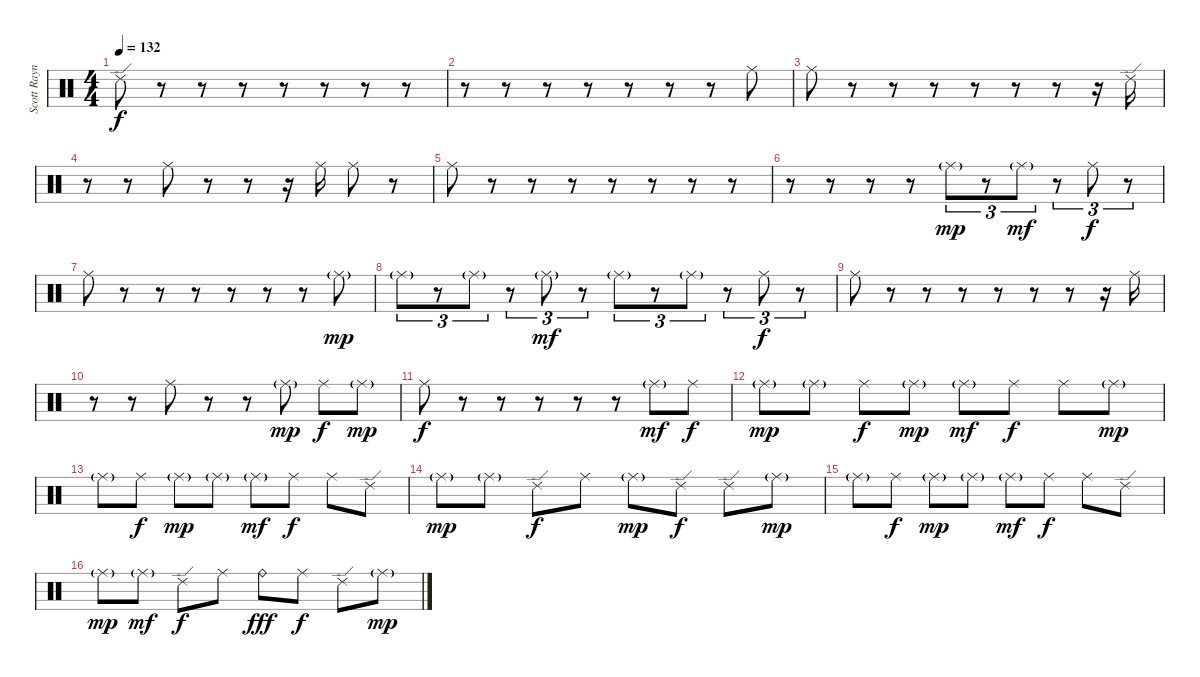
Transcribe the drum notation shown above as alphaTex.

\track ("Scott Raynor" "Scott Rayn") {instrument percussion}
\staff {score}
\articulation defaults
\ts (4 4)
\tempo 132
\clef neutral
\ks c "Ride (edge) 2".8{dy f volume 9}
r.8 r.8 r.8 r.8 r.8 r.8 r.8 |
r.8 r.8 r.8 r.8 r.8 r.8 r.8 "Ride (middle)".8 |
"Ride (middle)".8 r.8 r.8 r.8 r.8 r.8 r.8 r.16 "Ride (edge) 2".16 |
r.8 r.8 "Ride (middle)".8 r.8 r.8 r.16 "Ride (middle)".16 "Ride (middle)".8 r.8 |
"Ride (middle)".8 r.8 r.8 r.8 r.8 r.8 r.8 r.8 |
r.8 r.8 r.8 r.8 "Ride (middle)"{g}.8{tu (3 2) dy mp} r.8{tu (3 2)} "Ride (middle)"{g}.8{tu (3 2) dy mf} r.8{tu (3 2)} "Ride (middle)".8{tu (3 2) dy f} r.8{tu (3 2)} |
"Ride (middle)".8 r.8 r.8 r.8 r.8 r.8 r.8 "Ride (middle)"{g}.8{dy mp} |
"Ride (middle)"{g}.8{tu (3 2)} r.8{tu (3 2)} "Ride (middle)"{g}.8{tu (3 2)} r.8{tu (3 2)} "Ride (middle)"{g}.8{tu (3 2) dy mf} r.8{tu (3 2)} "Ride (middle)"{g}.8{tu (3 2)} r.8{tu (3 2)} "Ride (middle)"{g}.8{tu (3 2)} r.8{tu (3 2)} "Ride (middle)".8{tu (3 2) dy f} r.8{tu (3 2)} |
"Ride (middle)".8 r.8 r.8 r.8 r.8 r.8 r.8 r.16 "Ride (middle)".16 |
r.8 r.8 "Ride (middle)".8 r.8 r.8 "Ride (middle)"{g}.8{dy mp} "Ride (middle)".8{dy f} "Ride (middle)"{g}.8{dy mp} |
"Ride (middle)".8{dy f} r.8 r.8 r.8 r.8 r.8 "Ride (middle)"{g}.8{dy mf} "Ride (middle)".8{dy f} |
"Ride (middle)"{g}.8{dy mp} "Ride (middle)"{g}.8 "Ride (middle)".8{dy f} "Ride (middle)"{g}.8{dy mp} "Ride (middle)"{g}.8{dy mf} "Ride (middle)".8{dy f} "Ride (middle)".8 "Ride (middle)"{g}.8{dy mp} |
"Ride (middle)"{g}.8 "Ride (middle)".8{dy f} "Ride (middle)"{g}.8{dy mp} "Ride (middle)"{g}.8 "Ride (middle)"{g}.8{dy mf} "Ride (middle)".8{dy f} "Ride (middle)".8 "Ride (edge) 2".8 |
"Ride (middle)"{g}.8{dy mp} "Ride (middle)"{g}.8 "Ride (edge) 2".8{dy f} "Ride (middle)".8 "Ride (middle)"{g}.8{dy mp} "Ride (edge) 2".8{dy f} "Ride (edge) 2".8 "Ride (middle)"{g}.8{dy mp} |
"Ride (middle)"{g}.8 "Ride (middle)".8{dy f} "Ride (middle)"{g}.8{dy mp} "Ride (middle)"{g}.8 "Ride (middle)"{g}.8{dy mf} "Ride (middle)".8{dy f} "Ride (middle)".8 "Ride (edge) 2".8 |
"Ride (middle)"{g}.8{dy mp} "Ride (middle)"{g}.8{dy mf} "Ride (edge) 2".8{dy f} "Ride (middle)".8 "Ride (bell)".8{dy fff} "Ride (middle)".8{dy f} "Ride (edge) 2".8 "Ride (middle)"{g}.8{dy mp}
